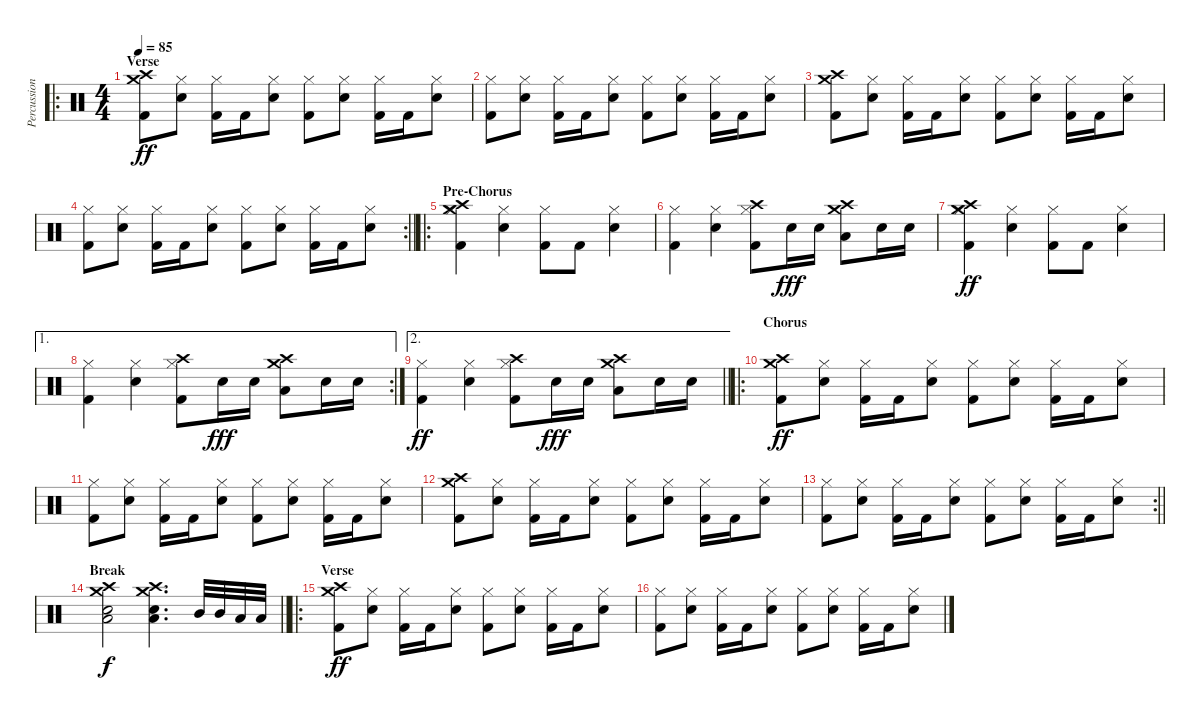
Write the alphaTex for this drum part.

\track ("Percussion" "Percussion") {instrument percussion}
\staff {score}
\articulation defaults
\ro
\ts (4 4)
\section ("" "Verse")
\tempo 85
\clef neutral
\ks c
("Crash high (hit)" "Crash medium (hit)" "Kick (hit) 2").8{dy ff} ("Hi-Hat (closed)" "Snare (hit) 2").8 ("Hi-Hat (closed)" "Kick (hit) 2").16 "Kick (hit) 2".16 ("Hi-Hat (closed)" "Snare (hit) 2").8 ("Hi-Hat (closed)" "Kick (hit) 2").8 ("Hi-Hat (closed)" "Snare (hit) 2").8 ("Hi-Hat (closed)" "Kick (hit) 2").16 "Kick (hit) 2".16 ("Hi-Hat (closed)" "Snare (hit) 2").8 |
("Hi-Hat (closed)" "Kick (hit) 2").8 ("Hi-Hat (closed)" "Snare (hit) 2").8 ("Hi-Hat (closed)" "Kick (hit) 2").16 "Kick (hit) 2".16 ("Hi-Hat (closed)" "Snare (hit) 2").8 ("Hi-Hat (closed)" "Kick (hit) 2").8 ("Hi-Hat (closed)" "Snare (hit) 2").8 ("Hi-Hat (closed)" "Kick (hit) 2").16 "Kick (hit) 2".16 ("Hi-Hat (closed)" "Snare (hit) 2").8 |
("Crash high (hit)" "Crash medium (hit)" "Kick (hit) 2").8 ("Hi-Hat (closed)" "Snare (hit) 2").8 ("Hi-Hat (closed)" "Kick (hit) 2").16 "Kick (hit) 2".16 ("Hi-Hat (closed)" "Snare (hit) 2").8 ("Hi-Hat (closed)" "Kick (hit) 2").8 ("Hi-Hat (closed)" "Snare (hit) 2").8 ("Hi-Hat (closed)" "Kick (hit) 2").16 "Kick (hit) 2".16 ("Hi-Hat (closed)" "Snare (hit) 2").8 |
\rc 2
\barLineRight lightlight
("Hi-Hat (closed)" "Kick (hit) 2").8 ("Hi-Hat (closed)" "Snare (hit) 2").8 ("Hi-Hat (closed)" "Kick (hit) 2").16 "Kick (hit) 2".16 ("Hi-Hat (closed)" "Snare (hit) 2").8 ("Hi-Hat (closed)" "Kick (hit) 2").8 ("Hi-Hat (closed)" "Snare (hit) 2").8 ("Hi-Hat (closed)" "Kick (hit) 2").16 "Kick (hit) 2".16 ("Hi-Hat (closed)" "Snare (hit) 2").8 |
\ro
\section ("" "Pre-Chorus")
("Hi-Hat (closed)" "Crash medium (hit)" "Crash high (hit)" "Kick (hit) 2").4 ("Hi-Hat (closed)" "Snare (hit) 2").4 ("Hi-Hat (closed)" "Kick (hit) 2").8 "Kick (hit) 2".8 ("Hi-Hat (closed)" "Snare (hit) 2").4 |
("Hi-Hat (closed)" "Kick (hit) 2").4 ("Hi-Hat (closed)" "Snare (hit) 2").4 ("Hi-Hat (closed)" "Crash high (hit)" "Kick (hit) 2").8 "Snare (hit) 2".16{dy fff} "Snare (hit) 2".16 ("Crash high (hit)" "Crash medium (hit)" "Low Floor Tom (hit)").8 "Snare (hit) 2".16 "Snare (hit) 2".16 |
("Hi-Hat (closed)" "Crash medium (hit)" "Crash high (hit)" "Kick (hit) 2").4{dy ff} ("Hi-Hat (closed)" "Snare (hit) 2").4 ("Hi-Hat (closed)" "Kick (hit) 2").8 "Kick (hit) 2".8 ("Hi-Hat (closed)" "Snare (hit) 2").4 |
\ae 1
\rc 2
("Hi-Hat (closed)" "Kick (hit) 2").4 ("Hi-Hat (closed)" "Snare (hit) 2").4 ("Hi-Hat (closed)" "Crash high (hit)" "Kick (hit) 2").8 "Snare (hit) 2".16{dy fff} "Snare (hit) 2".16 ("Crash high (hit)" "Crash medium (hit)" "Low Floor Tom (hit)").8 "Snare (hit) 2".16 "Snare (hit) 2".16 |
\ae 2
\barLineRight lightlight
("Hi-Hat (closed)" "Kick (hit) 2").4{dy ff} ("Hi-Hat (closed)" "Snare (hit) 2").4 ("Hi-Hat (closed)" "Crash high (hit)" "Kick (hit) 2").8 "Snare (hit) 2".16{dy fff} "Snare (hit) 2".16 ("Crash high (hit)" "Crash medium (hit)" "Low Floor Tom (hit)").8 "Snare (hit) 2".16 "Snare (hit) 2".16 |
\ro
\section ("" "Chorus")
("Crash high (hit)" "Crash medium (hit)" "Kick (hit) 2").8{dy ff} ("Hi-Hat (closed)" "Snare (hit) 2").8 ("Hi-Hat (closed)" "Kick (hit) 2").16 "Kick (hit) 2".16 ("Hi-Hat (closed)" "Snare (hit) 2").8 ("Hi-Hat (closed)" "Kick (hit) 2").8 ("Hi-Hat (closed)" "Snare (hit) 2").8 ("Hi-Hat (closed)" "Kick (hit) 2").16 "Kick (hit) 2".16 ("Hi-Hat (closed)" "Snare (hit) 2").8 |
("Hi-Hat (closed)" "Kick (hit) 2").8 ("Hi-Hat (closed)" "Snare (hit) 2").8 ("Hi-Hat (closed)" "Kick (hit) 2").16 "Kick (hit) 2".16 ("Hi-Hat (closed)" "Snare (hit) 2").8 ("Hi-Hat (closed)" "Kick (hit) 2").8 ("Hi-Hat (closed)" "Snare (hit) 2").8 ("Hi-Hat (closed)" "Kick (hit) 2").16 "Kick (hit) 2".16 ("Hi-Hat (closed)" "Snare (hit) 2").8 |
("Crash high (hit)" "Crash medium (hit)" "Kick (hit) 2").8 ("Hi-Hat (closed)" "Snare (hit) 2").8 ("Hi-Hat (closed)" "Kick (hit) 2").16 "Kick (hit) 2".16 ("Hi-Hat (closed)" "Snare (hit) 2").8 ("Hi-Hat (closed)" "Kick (hit) 2").8 ("Hi-Hat (closed)" "Snare (hit) 2").8 ("Hi-Hat (closed)" "Kick (hit) 2").16 "Kick (hit) 2".16 ("Hi-Hat (closed)" "Snare (hit) 2").8 |
\rc 2
\barLineRight lightlight
("Hi-Hat (closed)" "Kick (hit) 2").8 ("Hi-Hat (closed)" "Snare (hit) 2").8 ("Hi-Hat (closed)" "Kick (hit) 2").16 "Kick (hit) 2".16 ("Hi-Hat (closed)" "Snare (hit) 2").8 ("Hi-Hat (closed)" "Kick (hit) 2").8 ("Hi-Hat (closed)" "Snare (hit) 2").8 ("Hi-Hat (closed)" "Kick (hit) 2").16 "Kick (hit) 2".16 ("Hi-Hat (closed)" "Snare (hit) 2").8 |
\section ("" "Break")
\barLineRight lightlight
("Crash medium (hit)" "Crash high (hit)" "Low Floor Tom (hit)" "Snare (hit) 2").2{dy f} ("Crash medium (hit)" "Crash high (hit)" "Low Floor Tom (hit)" "Snare (hit) 2").4{d} "Mid Tom (hit)".32 "Mid Tom (hit)".32 "Low Tom (hit)".32 "Low Tom (hit)".32 |
\ro
\section ("" "Verse")
("Crash high (hit)" "Crash medium (hit)" "Kick (hit) 2").8{dy ff} ("Hi-Hat (closed)" "Snare (hit) 2").8 ("Hi-Hat (closed)" "Kick (hit) 2").16 "Kick (hit) 2".16 ("Hi-Hat (closed)" "Snare (hit) 2").8 ("Hi-Hat (closed)" "Kick (hit) 2").8 ("Hi-Hat (closed)" "Snare (hit) 2").8 ("Hi-Hat (closed)" "Kick (hit) 2").16 "Kick (hit) 2".16 ("Hi-Hat (closed)" "Snare (hit) 2").8 |
("Hi-Hat (closed)" "Kick (hit) 2").8 ("Hi-Hat (closed)" "Snare (hit) 2").8 ("Hi-Hat (closed)" "Kick (hit) 2").16 "Kick (hit) 2".16 ("Hi-Hat (closed)" "Snare (hit) 2").8 ("Hi-Hat (closed)" "Kick (hit) 2").8 ("Hi-Hat (closed)" "Snare (hit) 2").8 ("Hi-Hat (closed)" "Kick (hit) 2").16 "Kick (hit) 2".16 ("Hi-Hat (closed)" "Snare (hit) 2").8
